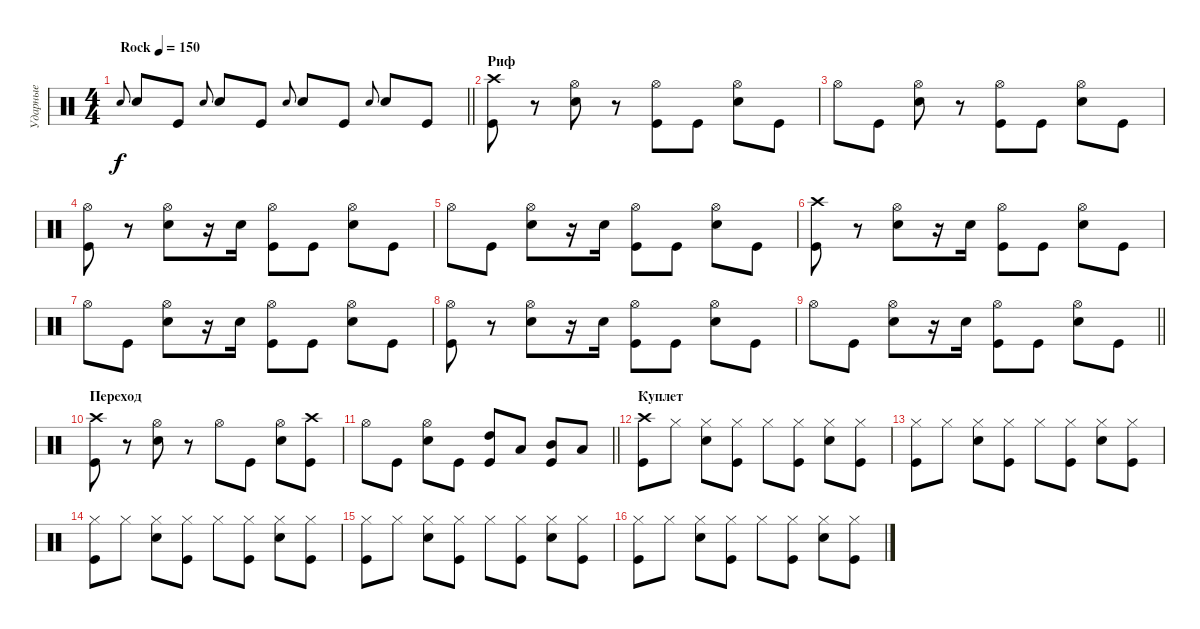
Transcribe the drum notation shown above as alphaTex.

\track ("Ударные" "Ударные") {instrument percussion}
\staff {score}
\articulation defaults
\ts (4 4)
\tempo (150 "Rock")
\clef neutral
\barLineRight lightlight
\ks c "Snare (hit) 2".8{gr onbeat dy f} "Snare (hit) 2".8 "Kick (hit)".8 "Snare (hit) 2".8{gr onbeat} "Snare (hit) 2".8 "Kick (hit)".8 "Snare (hit) 2".8{gr onbeat} "Snare (hit) 2".8 "Kick (hit)".8 "Snare (hit) 2".8{gr onbeat} "Snare (hit) 2".8 "Kick (hit)".8
|
\section ("" "Риф")
("Kick (hit)" "Crash high (hit)").8 r.8 ("Snare (hit) 2" "Hi-Hat (open)").8 r.8 ("Kick (hit)" "Hi-Hat (open)").8 "Kick (hit)".8 ("Snare (hit) 2" "Hi-Hat (open)").8 "Kick (hit)".8 |
"Hi-Hat (open)".8 "Kick (hit)".8 ("Snare (hit) 2" "Hi-Hat (open)").8 r.8 ("Kick (hit)" "Hi-Hat (open)").8 "Kick (hit)".8 ("Snare (hit) 2" "Hi-Hat (open)").8 "Kick (hit)".8 |
("Kick (hit)" "Hi-Hat (open)").8 r.8 ("Snare (hit) 2" "Hi-Hat (open)").8 r.16 "Snare (hit) 2".16 ("Kick (hit)" "Hi-Hat (open)").8 "Kick (hit)".8 ("Snare (hit) 2" "Hi-Hat (open)").8 "Kick (hit)".8 |
"Hi-Hat (open)".8 "Kick (hit)".8 ("Snare (hit) 2" "Hi-Hat (open)").8 r.16 "Snare (hit) 2".16 ("Kick (hit)" "Hi-Hat (open)").8 "Kick (hit)".8 ("Snare (hit) 2" "Hi-Hat (open)").8 "Kick (hit)".8 |
("Kick (hit)" "Crash high (hit)").8 r.8 ("Snare (hit) 2" "Hi-Hat (open)").8 r.16 "Snare (hit) 2".16 ("Kick (hit)" "Hi-Hat (open)").8 "Kick (hit)".8 ("Snare (hit) 2" "Hi-Hat (open)").8 "Kick (hit)".8 |
"Hi-Hat (open)".8 "Kick (hit)".8 ("Snare (hit) 2" "Hi-Hat (open)").8 r.16 "Snare (hit) 2".16 ("Kick (hit)" "Hi-Hat (open)").8 "Kick (hit)".8 ("Snare (hit) 2" "Hi-Hat (open)").8 "Kick (hit)".8 |
("Kick (hit)" "Hi-Hat (open)").8 r.8 ("Snare (hit) 2" "Hi-Hat (open)").8 r.16 "Snare (hit) 2".16 ("Kick (hit)" "Hi-Hat (open)").8 "Kick (hit)".8 ("Snare (hit) 2" "Hi-Hat (open)").8 "Kick (hit)".8 |
\barLineRight lightlight "Hi-Hat (open)".8 "Kick (hit)".8
("Snare (hit) 2" "Hi-Hat (open)").8 r.16 "Snare (hit) 2".16 ("Kick (hit)" "Hi-Hat (open)").8 "Kick (hit)".8 ("Snare (hit) 2" "Hi-Hat (open)").8 "Kick (hit)".8 |
\section ("" "Переход")
("Kick (hit)" "Crash high (hit)").8 r.8 ("Snare (hit) 2" "Hi-Hat (open)").8 r.8 "Hi-Hat (open)".8 "Kick (hit)".8 ("Snare (hit) 2" "Hi-Hat (open)").8 ("Kick (hit)" "Crash high (hit)").8 |
\barLineRight lightlight "Hi-Hat (open)".8 "Kick (hit)".8
("Snare (hit) 2" "Hi-Hat (open)").8 "Kick (hit)".8 ("High Tom (hit)" "Kick (hit)").8 "Low Tom (hit)".8 ("Mid Tom (hit)" "Kick (hit)").8 "Low Tom (hit)".8 |
\section ("" "Куплет")
("Kick (hit)" "Crash high (hit)").8 "Hi-Hat (closed)".8 ("Snare (hit) 2" "Hi-Hat (closed)").8 ("Kick (hit)" "Hi-Hat (closed)").8 "Hi-Hat (closed)".8 ("Kick (hit)" "Hi-Hat (closed)").8 ("Snare (hit) 2" "Hi-Hat (closed)").8 ("Kick (hit)" "Hi-Hat (closed)").8 |
("Kick (hit)" "Hi-Hat (closed)").8 "Hi-Hat (closed)".8 ("Snare (hit) 2" "Hi-Hat (closed)").8 ("Kick (hit)" "Hi-Hat (closed)").8 "Hi-Hat (closed)".8 ("Kick (hit)" "Hi-Hat (closed)").8 ("Snare (hit) 2" "Hi-Hat (closed)").8 ("Kick (hit)" "Hi-Hat (closed)").8 |
("Kick (hit)" "Hi-Hat (closed)").8 "Hi-Hat (closed)".8 ("Snare (hit) 2" "Hi-Hat (closed)").8 ("Kick (hit)" "Hi-Hat (closed)").8 "Hi-Hat (closed)".8 ("Kick (hit)" "Hi-Hat (closed)").8 ("Snare (hit) 2" "Hi-Hat (closed)").8 ("Kick (hit)" "Hi-Hat (closed)").8 |
("Kick (hit)" "Hi-Hat (closed)").8 "Hi-Hat (closed)".8 ("Snare (hit) 2" "Hi-Hat (closed)").8 ("Kick (hit)" "Hi-Hat (closed)").8 "Hi-Hat (closed)".8 ("Kick (hit)" "Hi-Hat (closed)").8 ("Snare (hit) 2" "Hi-Hat (closed)").8 ("Kick (hit)" "Hi-Hat (closed)").8 |
("Kick (hit)" "Hi-Hat (closed)").8 "Hi-Hat (closed)".8 ("Snare (hit) 2" "Hi-Hat (closed)").8 ("Kick (hit)" "Hi-Hat (closed)").8 "Hi-Hat (closed)".8 ("Kick (hit)" "Hi-Hat (closed)").8 ("Snare (hit) 2" "Hi-Hat (closed)").8 ("Kick (hit)" "Hi-Hat (closed)").8
